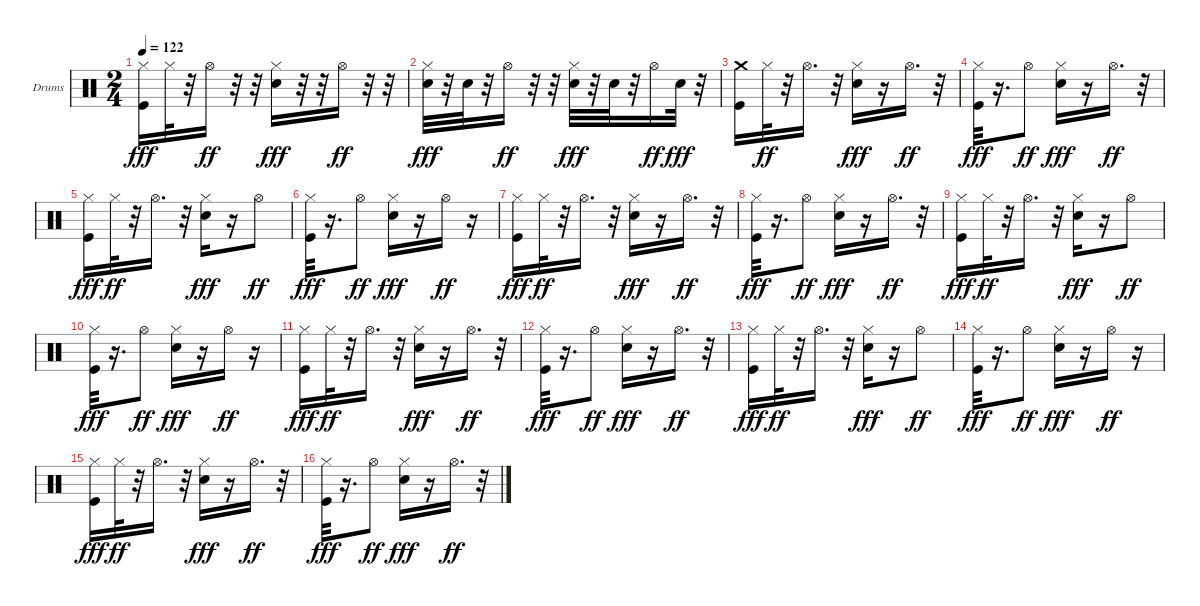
\bracketExtendMode groupsimilarinstruments
\firstSystemTrackNameOrientation horizontal
\otherSystemsTrackNameOrientation horizontal
\track ("Ударные" "Drums") {instrument percussion}
\staff {score}
\articulation defaults
\ts (2 4)
\tempo 122
\clef neutral
\ks c
("Kick (hit)" "Hi-Hat (closed)").16{dy fff} "Hi-Hat (closed)".32 r.32 "Hi-Hat (open)".16{dy ff} r.32 r.32 ("Snare (hit) 2" "Hi-Hat (closed)").16{dy fff} r.32 r.32 "Hi-Hat (open)".16{dy ff} r.32 r.32 |
("Snare (hit) 2" "Hi-Hat (closed)").32{dy fff} r.32 "Snare (hit) 2".32 r.32 "Hi-Hat (open)".16{dy ff} r.32 r.32 ("Snare (hit) 2" "Hi-Hat (closed)").32{dy fff} r.32 "Snare (hit) 2".32 r.32 "Hi-Hat (open)".16{dy ff} "Snare (hit) 2".32{dy fff} r.32 |
("Kick (hit)" "Crash medium (hit)").16 "Hi-Hat (closed)".32{dy ff} r.32 "Hi-Hat (open)".16{d} r.32 ("Snare (hit) 2" "Hi-Hat (closed)").16{dy fff} r.16 "Hi-Hat (open)".16{d dy ff} r.32 |
("Kick (hit)" "Hi-Hat (closed)").32{dy fff} r.16{d} "Hi-Hat (open)".8{dy ff} ("Snare (hit) 2" "Hi-Hat (closed)").16{dy fff} r.16 "Hi-Hat (open)".16{d dy ff} r.32 |
("Kick (hit)" "Hi-Hat (closed)").16{dy fff} "Hi-Hat (closed)".32{dy ff} r.32 "Hi-Hat (open)".16{d} r.32 ("Snare (hit) 2" "Hi-Hat (closed)").16{dy fff} r.16 "Hi-Hat (open)".8{dy ff} |
("Kick (hit)" "Hi-Hat (closed)").32{dy fff} r.16{d} "Hi-Hat (open)".8{dy ff} ("Snare (hit) 2" "Hi-Hat (closed)").16{dy fff} r.16 "Hi-Hat (open)".16{dy ff} r.16 |
("Kick (hit)" "Hi-Hat (closed)").16{dy fff} "Hi-Hat (closed)".32{dy ff} r.32 "Hi-Hat (open)".16{d} r.32 ("Snare (hit) 2" "Hi-Hat (closed)").16{dy fff} r.16 "Hi-Hat (open)".16{d dy ff} r.32 |
("Kick (hit)" "Hi-Hat (closed)").32{dy fff} r.16{d} "Hi-Hat (open)".8{dy ff} ("Snare (hit) 2" "Hi-Hat (closed)").16{dy fff} r.16 "Hi-Hat (open)".16{d dy ff} r.32 |
("Kick (hit)" "Hi-Hat (closed)").16{dy fff} "Hi-Hat (closed)".32{dy ff} r.32 "Hi-Hat (open)".16{d} r.32 ("Snare (hit) 2" "Hi-Hat (closed)").16{dy fff} r.16 "Hi-Hat (open)".8{dy ff} |
("Kick (hit)" "Hi-Hat (closed)").32{dy fff} r.16{d} "Hi-Hat (open)".8{dy ff} ("Snare (hit) 2" "Hi-Hat (closed)").16{dy fff} r.16 "Hi-Hat (open)".16{dy ff} r.16 |
("Kick (hit)" "Hi-Hat (closed)").16{dy fff} "Hi-Hat (closed)".32{dy ff} r.32 "Hi-Hat (open)".16{d} r.32 ("Snare (hit) 2" "Hi-Hat (closed)").16{dy fff} r.16 "Hi-Hat (open)".16{d dy ff} r.32 |
("Kick (hit)" "Hi-Hat (closed)").32{dy fff} r.16{d} "Hi-Hat (open)".8{dy ff} ("Snare (hit) 2" "Hi-Hat (closed)").16{dy fff} r.16 "Hi-Hat (open)".16{d dy ff} r.32 |
("Kick (hit)" "Hi-Hat (closed)").16{dy fff} "Hi-Hat (closed)".32{dy ff} r.32 "Hi-Hat (open)".16{d} r.32 ("Snare (hit) 2" "Hi-Hat (closed)").16{dy fff} r.16 "Hi-Hat (open)".8{dy ff} |
("Kick (hit)" "Hi-Hat (closed)").32{dy fff} r.16{d} "Hi-Hat (open)".8{dy ff} ("Snare (hit) 2" "Hi-Hat (closed)").16{dy fff} r.16 "Hi-Hat (open)".16{dy ff} r.16 |
("Kick (hit)" "Hi-Hat (closed)").16{dy fff} "Hi-Hat (closed)".32{dy ff} r.32 "Hi-Hat (open)".16{d} r.32 ("Snare (hit) 2" "Hi-Hat (closed)").16{dy fff} r.16 "Hi-Hat (open)".16{d dy ff} r.32 |
("Kick (hit)" "Hi-Hat (closed)").32{dy fff} r.16{d} "Hi-Hat (open)".8{dy ff} ("Snare (hit) 2" "Hi-Hat (closed)").16{dy fff} r.16 "Hi-Hat (open)".16{d dy ff} r.32
